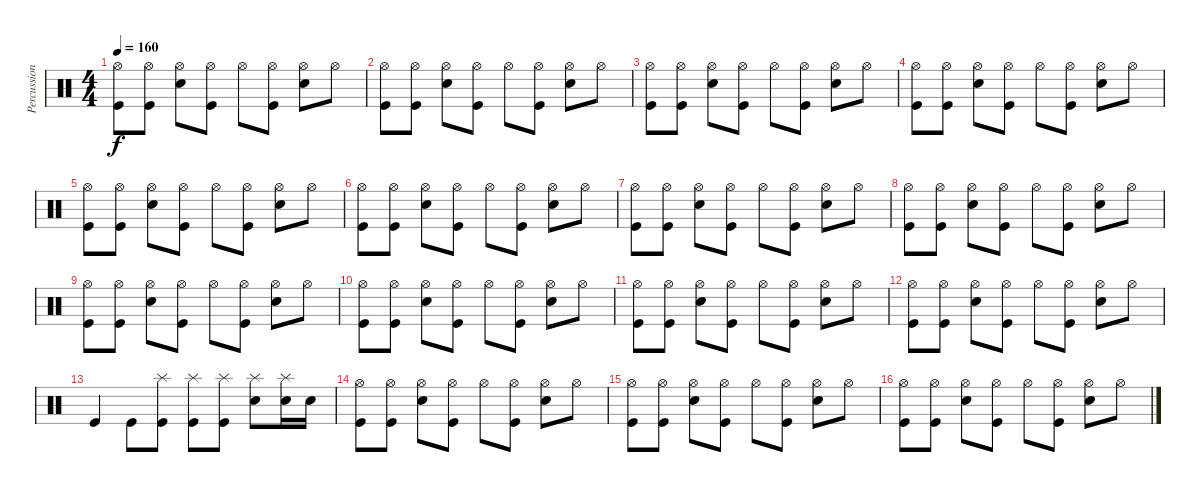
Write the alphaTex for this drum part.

\track ("Percussions" "Percussion") {instrument percussion}
\staff {score}
\articulation defaults
\ts (4 4)
\tempo 160
\clef neutral
\ks c
("Hi-Hat (open)" "Kick (hit)").8{dy f} ("Hi-Hat (open)" "Kick (hit)").8 ("Hi-Hat (open)" "Snare (hit) 2").8 ("Hi-Hat (open)" "Kick (hit)").8 "Hi-Hat (open)".8 ("Hi-Hat (open)" "Kick (hit)").8 ("Hi-Hat (open)" "Snare (hit) 2").8 "Hi-Hat (open)".8 |
("Hi-Hat (open)" "Kick (hit)").8 ("Hi-Hat (open)" "Kick (hit)").8 ("Hi-Hat (open)" "Snare (hit) 2").8 ("Hi-Hat (open)" "Kick (hit)").8 "Hi-Hat (open)".8 ("Hi-Hat (open)" "Kick (hit)").8 ("Hi-Hat (open)" "Snare (hit) 2").8 "Hi-Hat (open)".8 |
("Hi-Hat (open)" "Kick (hit)").8 ("Hi-Hat (open)" "Kick (hit)").8 ("Hi-Hat (open)" "Snare (hit) 2").8 ("Hi-Hat (open)" "Kick (hit)").8 "Hi-Hat (open)".8 ("Hi-Hat (open)" "Kick (hit)").8 ("Hi-Hat (open)" "Snare (hit) 2").8 "Hi-Hat (open)".8 |
("Hi-Hat (open)" "Kick (hit)").8 ("Hi-Hat (open)" "Kick (hit)").8 ("Hi-Hat (open)" "Snare (hit) 2").8 ("Hi-Hat (open)" "Kick (hit)").8 "Hi-Hat (open)".8 ("Hi-Hat (open)" "Kick (hit)").8 ("Hi-Hat (open)" "Snare (hit) 2").8 "Hi-Hat (open)".8 |
("Hi-Hat (open)" "Kick (hit)").8 ("Hi-Hat (open)" "Kick (hit)").8 ("Hi-Hat (open)" "Snare (hit) 2").8 ("Hi-Hat (open)" "Kick (hit)").8 "Hi-Hat (open)".8 ("Hi-Hat (open)" "Kick (hit)").8 ("Hi-Hat (open)" "Snare (hit) 2").8 "Hi-Hat (open)".8 |
("Hi-Hat (open)" "Kick (hit)").8 ("Hi-Hat (open)" "Kick (hit)").8 ("Hi-Hat (open)" "Snare (hit) 2").8 ("Hi-Hat (open)" "Kick (hit)").8 "Hi-Hat (open)".8 ("Hi-Hat (open)" "Kick (hit)").8 ("Hi-Hat (open)" "Snare (hit) 2").8 "Hi-Hat (open)".8 |
("Hi-Hat (open)" "Kick (hit)").8 ("Hi-Hat (open)" "Kick (hit)").8 ("Hi-Hat (open)" "Snare (hit) 2").8 ("Hi-Hat (open)" "Kick (hit)").8 "Hi-Hat (open)".8 ("Hi-Hat (open)" "Kick (hit)").8 ("Hi-Hat (open)" "Snare (hit) 2").8 "Hi-Hat (open)".8 |
("Hi-Hat (open)" "Kick (hit)").8 ("Hi-Hat (open)" "Kick (hit)").8 ("Hi-Hat (open)" "Snare (hit) 2").8 ("Hi-Hat (open)" "Kick (hit)").8 "Hi-Hat (open)".8 ("Hi-Hat (open)" "Kick (hit)").8 ("Hi-Hat (open)" "Snare (hit) 2").8 "Hi-Hat (open)".8 |
("Hi-Hat (open)" "Kick (hit)").8 ("Hi-Hat (open)" "Kick (hit)").8 ("Hi-Hat (open)" "Snare (hit) 2").8 ("Hi-Hat (open)" "Kick (hit)").8 "Hi-Hat (open)".8 ("Hi-Hat (open)" "Kick (hit)").8 ("Hi-Hat (open)" "Snare (hit) 2").8 "Hi-Hat (open)".8 |
("Hi-Hat (open)" "Kick (hit)").8 ("Hi-Hat (open)" "Kick (hit)").8 ("Hi-Hat (open)" "Snare (hit) 2").8 ("Hi-Hat (open)" "Kick (hit)").8 "Hi-Hat (open)".8 ("Hi-Hat (open)" "Kick (hit)").8 ("Hi-Hat (open)" "Snare (hit) 2").8 "Hi-Hat (open)".8 |
("Hi-Hat (open)" "Kick (hit)").8 ("Hi-Hat (open)" "Kick (hit)").8 ("Hi-Hat (open)" "Snare (hit) 2").8 ("Hi-Hat (open)" "Kick (hit)").8 "Hi-Hat (open)".8 ("Hi-Hat (open)" "Kick (hit)").8 ("Hi-Hat (open)" "Snare (hit) 2").8 "Hi-Hat (open)".8 |
("Hi-Hat (open)" "Kick (hit)").8 ("Hi-Hat (open)" "Kick (hit)").8 ("Hi-Hat (open)" "Snare (hit) 2").8 ("Hi-Hat (open)" "Kick (hit)").8 "Hi-Hat (open)".8 ("Hi-Hat (open)" "Kick (hit)").8 ("Hi-Hat (open)" "Snare (hit) 2").8 "Hi-Hat (open)".8 |
"Kick (hit)".4 "Kick (hit)".8 ("Splash (hit)" "Kick (hit)").8 ("Splash (hit)" "Kick (hit)").8 ("Splash (hit)" "Kick (hit)").8 ("Splash (hit)" "Snare (hit) 2").8 ("Splash (hit)" "Snare (hit) 2").16 "Snare (hit) 2".16 |
("Hi-Hat (open)" "Kick (hit)").8 ("Hi-Hat (open)" "Kick (hit)").8 ("Hi-Hat (open)" "Snare (hit) 2").8 ("Hi-Hat (open)" "Kick (hit)").8 "Hi-Hat (open)".8 ("Hi-Hat (open)" "Kick (hit)").8 ("Hi-Hat (open)" "Snare (hit) 2").8 "Hi-Hat (open)".8 |
("Hi-Hat (open)" "Kick (hit)").8 ("Hi-Hat (open)" "Kick (hit)").8 ("Hi-Hat (open)" "Snare (hit) 2").8 ("Hi-Hat (open)" "Kick (hit)").8 "Hi-Hat (open)".8 ("Hi-Hat (open)" "Kick (hit)").8 ("Hi-Hat (open)" "Snare (hit) 2").8 "Hi-Hat (open)".8 |
("Hi-Hat (open)" "Kick (hit)").8 ("Hi-Hat (open)" "Kick (hit)").8 ("Hi-Hat (open)" "Snare (hit) 2").8 ("Hi-Hat (open)" "Kick (hit)").8 "Hi-Hat (open)".8 ("Hi-Hat (open)" "Kick (hit)").8 ("Hi-Hat (open)" "Snare (hit) 2").8 "Hi-Hat (open)".8
